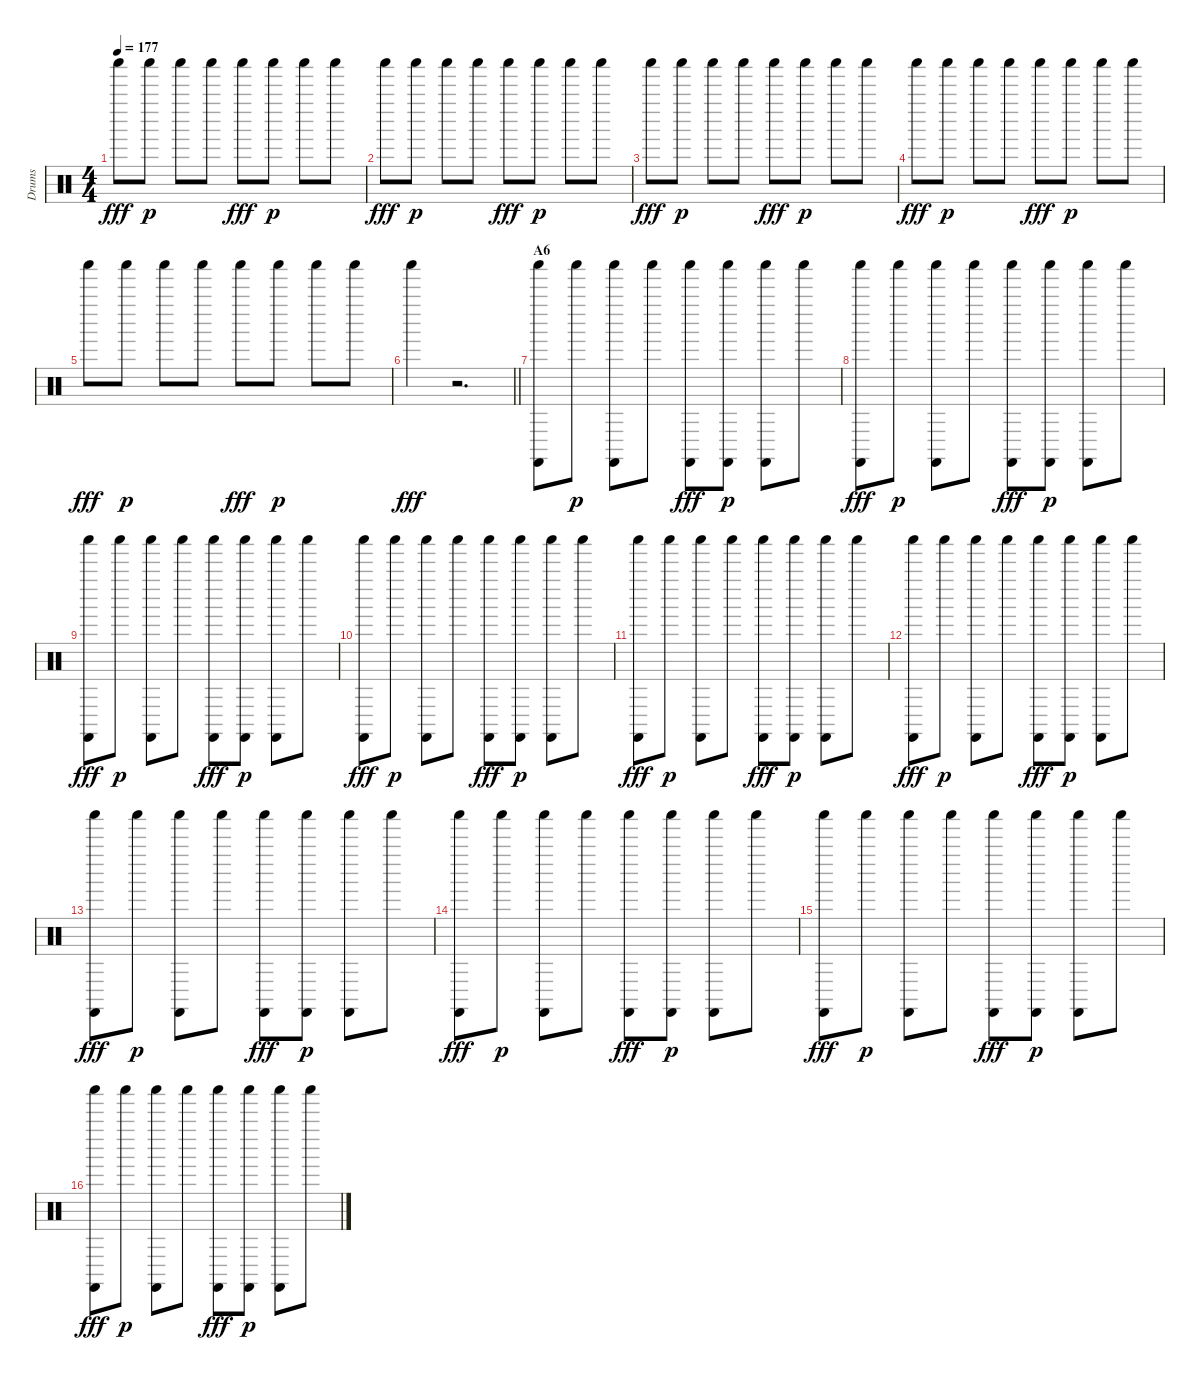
\track ("Drums" "Drums") {instrument percussion}
\staff {score}
\articulation defaults
\ts (4 4)
\tempo 177
\clef neutral
\ks c "Shaker (hit)".8{dy fff} "Shaker (hit)".8{dy p} "Shaker (hit)".8 "Shaker (hit)".8 "Shaker (hit)".8{dy fff} "Shaker (hit)".8{dy p} "Shaker (hit)".8 "Shaker (hit)".8
|
"Shaker (hit)".8{dy fff} "Shaker (hit)".8{dy p} "Shaker (hit)".8 "Shaker (hit)".8 "Shaker (hit)".8{dy fff} "Shaker (hit)".8{dy p} "Shaker (hit)".8 "Shaker (hit)".8 |
"Shaker (hit)".8{dy fff} "Shaker (hit)".8{dy p} "Shaker (hit)".8 "Shaker (hit)".8 "Shaker (hit)".8{dy fff} "Shaker (hit)".8{dy p} "Shaker (hit)".8 "Shaker (hit)".8 |
"Shaker (hit)".8{dy fff} "Shaker (hit)".8{dy p} "Shaker (hit)".8 "Shaker (hit)".8 "Shaker (hit)".8{dy fff} "Shaker (hit)".8{dy p} "Shaker (hit)".8 "Shaker (hit)".8 |
"Shaker (hit)".8{dy fff} "Shaker (hit)".8{dy p} "Shaker (hit)".8 "Shaker (hit)".8 "Shaker (hit)".8{dy fff} "Shaker (hit)".8{dy p} "Shaker (hit)".8 "Shaker (hit)".8 |
\barLineRight lightlight "Shaker (hit)".4{dy fff}
r.2{d} |
\section ("" "A6")
("Castanets (hit)" "Shaker (hit)").8 "Shaker (hit)".8{dy p} ("Castanets (hit)" "Shaker (hit)").8 "Shaker (hit)".8 ("Castanets (hit)" "Shaker (hit)").8{dy fff} ("Castanets (hit)" "Shaker (hit)").8{dy p} ("Castanets (hit)" "Shaker (hit)").8 "Shaker (hit)".8 |
("Castanets (hit)" "Shaker (hit)").8{dy fff} "Shaker (hit)".8{dy p} ("Castanets (hit)" "Shaker (hit)").8 "Shaker (hit)".8 ("Castanets (hit)" "Shaker (hit)").8{dy fff} ("Castanets (hit)" "Shaker (hit)").8{dy p} ("Castanets (hit)" "Shaker (hit)").8 "Shaker (hit)".8 |
("Castanets (hit)" "Shaker (hit)").8{dy fff} "Shaker (hit)".8{dy p} ("Castanets (hit)" "Shaker (hit)").8 "Shaker (hit)".8 ("Castanets (hit)" "Shaker (hit)").8{dy fff} ("Castanets (hit)" "Shaker (hit)").8{dy p} ("Castanets (hit)" "Shaker (hit)").8 "Shaker (hit)".8 |
("Castanets (hit)" "Shaker (hit)").8{dy fff} "Shaker (hit)".8{dy p} ("Castanets (hit)" "Shaker (hit)").8 "Shaker (hit)".8 ("Castanets (hit)" "Shaker (hit)").8{dy fff} ("Castanets (hit)" "Shaker (hit)").8{dy p} ("Castanets (hit)" "Shaker (hit)").8 "Shaker (hit)".8 |
("Castanets (hit)" "Shaker (hit)").8{dy fff} "Shaker (hit)".8{dy p} ("Castanets (hit)" "Shaker (hit)").8 "Shaker (hit)".8 ("Castanets (hit)" "Shaker (hit)").8{dy fff} ("Castanets (hit)" "Shaker (hit)").8{dy p} ("Castanets (hit)" "Shaker (hit)").8 "Shaker (hit)".8 |
("Castanets (hit)" "Shaker (hit)").8{dy fff} "Shaker (hit)".8{dy p} ("Castanets (hit)" "Shaker (hit)").8 "Shaker (hit)".8 ("Castanets (hit)" "Shaker (hit)").8{dy fff} ("Castanets (hit)" "Shaker (hit)").8{dy p} ("Castanets (hit)" "Shaker (hit)").8 "Shaker (hit)".8 |
("Castanets (hit)" "Shaker (hit)").8{dy fff} "Shaker (hit)".8{dy p} ("Castanets (hit)" "Shaker (hit)").8 "Shaker (hit)".8 ("Castanets (hit)" "Shaker (hit)").8{dy fff} ("Castanets (hit)" "Shaker (hit)").8{dy p} ("Castanets (hit)" "Shaker (hit)").8 "Shaker (hit)".8 |
("Castanets (hit)" "Shaker (hit)").8{dy fff} "Shaker (hit)".8{dy p} ("Castanets (hit)" "Shaker (hit)").8 "Shaker (hit)".8 ("Castanets (hit)" "Shaker (hit)").8{dy fff} ("Castanets (hit)" "Shaker (hit)").8{dy p} ("Castanets (hit)" "Shaker (hit)").8 "Shaker (hit)".8 |
("Castanets (hit)" "Shaker (hit)").8{dy fff} "Shaker (hit)".8{dy p} ("Castanets (hit)" "Shaker (hit)").8 "Shaker (hit)".8 ("Castanets (hit)" "Shaker (hit)").8{dy fff} ("Castanets (hit)" "Shaker (hit)").8{dy p} ("Castanets (hit)" "Shaker (hit)").8 "Shaker (hit)".8 |
("Castanets (hit)" "Shaker (hit)").8{dy fff} "Shaker (hit)".8{dy p} ("Castanets (hit)" "Shaker (hit)").8 "Shaker (hit)".8 ("Castanets (hit)" "Shaker (hit)").8{dy fff} ("Castanets (hit)" "Shaker (hit)").8{dy p} ("Castanets (hit)" "Shaker (hit)").8 "Shaker (hit)".8
